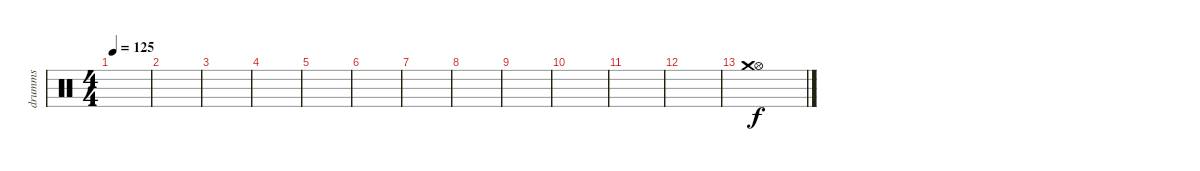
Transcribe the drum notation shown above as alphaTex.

\track ("drumms" "drumms") {instrument percussion}
\staff {score}
\articulation defaults
\ts (4 4)
\tempo 125
\clef neutral
\ks c
|
|
|
|
|
|
|
|
|
|
|
|
("Hi-Hat (open)" "Crash medium (hit)").1
